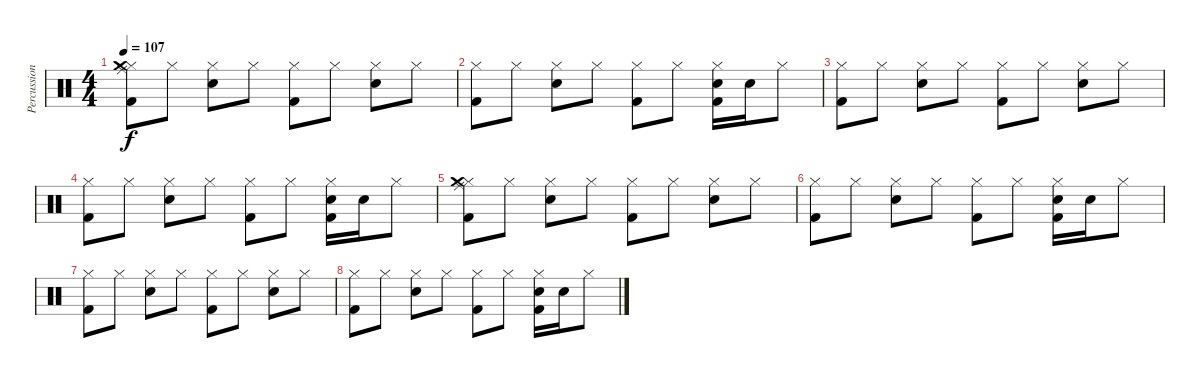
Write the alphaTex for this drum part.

\track ("Percussion" "Percussion") {instrument percussion}
\staff {score}
\articulation defaults
\ts (4 4)
\tempo 107
\clef neutral
\ks c
("Hi-Hat (closed)" "Ride (middle)" "Crash medium (hit)" "Kick (hit) 2").8{dy f} "Hi-Hat (closed)".8 ("Hi-Hat (closed)" "Snare (hit) 2").8 "Hi-Hat (closed)".8 ("Hi-Hat (closed)" "Kick (hit) 2").8 "Hi-Hat (closed)".8 ("Hi-Hat (closed)" "Snare (hit) 2").8 "Hi-Hat (closed)".8 |
("Hi-Hat (closed)" "Kick (hit) 2").8 "Hi-Hat (closed)".8 ("Hi-Hat (closed)" "Snare (hit) 2").8 "Hi-Hat (closed)".8 ("Hi-Hat (closed)" "Kick (hit) 2").8 "Hi-Hat (closed)".8 ("Hi-Hat (closed)" "Kick (hit) 2" "Snare (hit) 2").16 "Snare (hit) 2".16 "Hi-Hat (closed)".8 |
("Hi-Hat (closed)" "Kick (hit) 2").8 "Hi-Hat (closed)".8 ("Hi-Hat (closed)" "Snare (hit) 2").8 "Hi-Hat (closed)".8 ("Hi-Hat (closed)" "Kick (hit) 2").8 "Hi-Hat (closed)".8 ("Hi-Hat (closed)" "Snare (hit) 2").8 "Hi-Hat (closed)".8 |
("Hi-Hat (closed)" "Kick (hit) 2").8 "Hi-Hat (closed)".8 ("Hi-Hat (closed)" "Snare (hit) 2").8 "Hi-Hat (closed)".8 ("Hi-Hat (closed)" "Kick (hit) 2").8 "Hi-Hat (closed)".8 ("Hi-Hat (closed)" "Kick (hit) 2" "Snare (hit) 2").16 "Snare (hit) 2".16 "Hi-Hat (closed)".8 |
("Hi-Hat (closed)" "Ride (middle)" "Crash medium (hit)" "Kick (hit) 2").8 "Hi-Hat (closed)".8 ("Hi-Hat (closed)" "Snare (hit) 2").8 "Hi-Hat (closed)".8 ("Hi-Hat (closed)" "Kick (hit) 2").8 "Hi-Hat (closed)".8 ("Hi-Hat (closed)" "Snare (hit) 2").8 "Hi-Hat (closed)".8 |
("Hi-Hat (closed)" "Kick (hit) 2").8 "Hi-Hat (closed)".8 ("Hi-Hat (closed)" "Snare (hit) 2").8 "Hi-Hat (closed)".8 ("Hi-Hat (closed)" "Kick (hit) 2").8 "Hi-Hat (closed)".8 ("Hi-Hat (closed)" "Kick (hit) 2" "Snare (hit) 2").16 "Snare (hit) 2".16 "Hi-Hat (closed)".8 |
("Hi-Hat (closed)" "Kick (hit) 2").8 "Hi-Hat (closed)".8 ("Hi-Hat (closed)" "Snare (hit) 2").8 "Hi-Hat (closed)".8 ("Hi-Hat (closed)" "Kick (hit) 2").8 "Hi-Hat (closed)".8 ("Hi-Hat (closed)" "Snare (hit) 2").8 "Hi-Hat (closed)".8 |
("Hi-Hat (closed)" "Kick (hit) 2").8 "Hi-Hat (closed)".8 ("Hi-Hat (closed)" "Snare (hit) 2").8 "Hi-Hat (closed)".8 ("Hi-Hat (closed)" "Kick (hit) 2").8 "Hi-Hat (closed)".8 ("Hi-Hat (closed)" "Kick (hit) 2" "Snare (hit) 2").16 "Snare (hit) 2".16 "Hi-Hat (closed)".8
